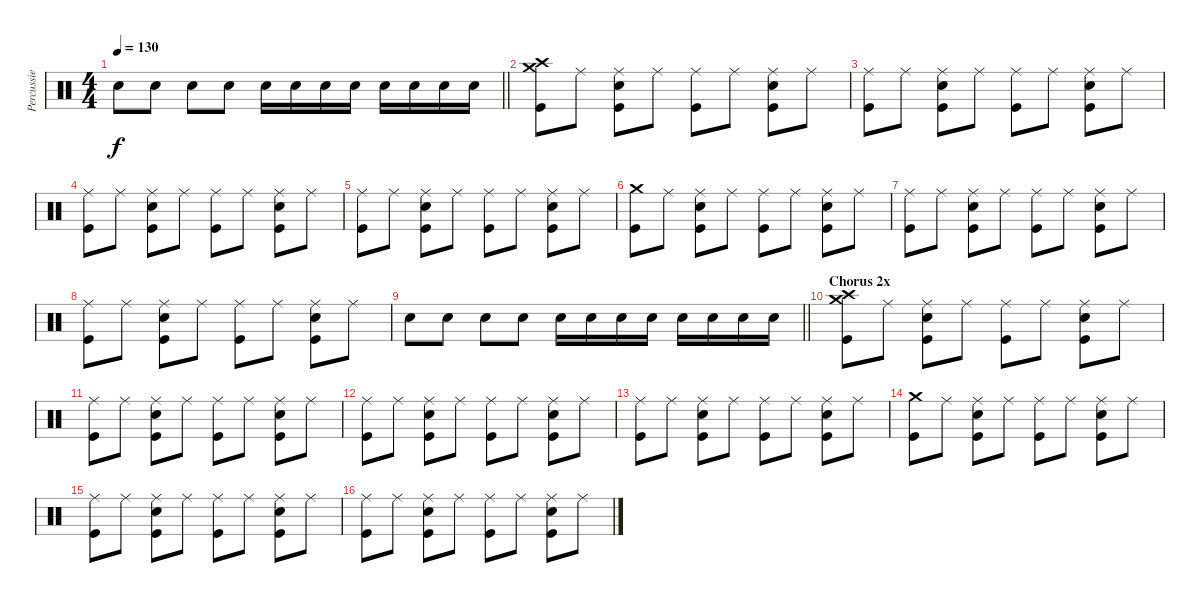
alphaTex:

\track ("Percussie" "Percussie") {instrument percussion}
\staff {score}
\articulation defaults
\ts (4 4)
\tempo 130
\clef neutral
\barLineRight lightlight
\ks c "Snare (hit) 2".8{dy f} "Snare (hit) 2".8 "Snare (hit) 2".8 "Snare (hit) 2".8 "Snare (hit) 2".16 "Snare (hit) 2".16 "Snare (hit) 2".16 "Snare (hit) 2".16 "Snare (hit) 2".16 "Snare (hit) 2".16 "Snare (hit) 2".16 "Snare (hit) 2".16
|
("Crash high (hit)" "Crash medium (hit)" "Kick (hit)").8 "Ride (middle)".8 ("Ride (middle)" "Snare (hit) 2" "Kick (hit)").8 "Ride (middle)".8 ("Ride (middle)" "Kick (hit)").8 "Ride (middle)".8 ("Ride (middle)" "Snare (hit) 2" "Kick (hit)").8 "Ride (middle)".8 |
("Ride (middle)" "Kick (hit)").8 "Ride (middle)".8 ("Ride (middle)" "Snare (hit) 2" "Kick (hit)").8 "Ride (middle)".8 ("Ride (middle)" "Kick (hit)").8 "Ride (middle)".8 ("Ride (middle)" "Snare (hit) 2" "Kick (hit)").8 "Ride (middle)".8 |
("Ride (middle)" "Kick (hit)").8 "Ride (middle)".8 ("Ride (middle)" "Snare (hit) 2" "Kick (hit)").8 "Ride (middle)".8 ("Ride (middle)" "Kick (hit)").8 "Ride (middle)".8 ("Ride (middle)" "Snare (hit) 2" "Kick (hit)").8 "Ride (middle)".8 |
("Ride (middle)" "Kick (hit)").8 "Ride (middle)".8 ("Ride (middle)" "Snare (hit) 2" "Kick (hit)").8 "Ride (middle)".8 ("Ride (middle)" "Kick (hit)").8 "Ride (middle)".8 ("Ride (middle)" "Snare (hit) 2" "Kick (hit)").8 "Ride (middle)".8 |
("Crash medium (hit)" "Kick (hit)").8 "Ride (middle)".8 ("Ride (middle)" "Snare (hit) 2" "Kick (hit)").8 "Ride (middle)".8 ("Ride (middle)" "Kick (hit)").8 "Ride (middle)".8 ("Ride (middle)" "Snare (hit) 2" "Kick (hit)").8 "Ride (middle)".8 |
("Ride (middle)" "Kick (hit)").8 "Ride (middle)".8 ("Ride (middle)" "Snare (hit) 2" "Kick (hit)").8 "Ride (middle)".8 ("Ride (middle)" "Kick (hit)").8 "Ride (middle)".8 ("Ride (middle)" "Snare (hit) 2" "Kick (hit)").8 "Ride (middle)".8 |
("Ride (middle)" "Kick (hit)").8 "Ride (middle)".8 ("Ride (middle)" "Snare (hit) 2" "Kick (hit)").8 "Ride (middle)".8 ("Ride (middle)" "Kick (hit)").8 "Ride (middle)".8 ("Ride (middle)" "Snare (hit) 2" "Kick (hit)").8 "Ride (middle)".8 |
\barLineRight lightlight "Snare (hit) 2".8 "Snare (hit) 2".8 "Snare (hit) 2".8 "Snare (hit) 2".8 "Snare (hit) 2".16 "Snare (hit) 2".16 "Snare (hit) 2".16 "Snare (hit) 2".16 "Snare (hit) 2".16 "Snare (hit) 2".16 "Snare (hit) 2".16 "Snare (hit) 2".16
|
\section ("" "Chorus 2x")
("Crash high (hit)" "Crash medium (hit)" "Kick (hit)").8 "Ride (middle)".8 ("Ride (middle)" "Snare (hit) 2" "Kick (hit)").8 "Ride (middle)".8 ("Ride (middle)" "Kick (hit)").8 "Ride (middle)".8 ("Ride (middle)" "Snare (hit) 2" "Kick (hit)").8 "Ride (middle)".8 |
("Ride (middle)" "Kick (hit)").8 "Ride (middle)".8 ("Ride (middle)" "Snare (hit) 2" "Kick (hit)").8 "Ride (middle)".8 ("Ride (middle)" "Kick (hit)").8 "Ride (middle)".8 ("Ride (middle)" "Snare (hit) 2" "Kick (hit)").8 "Ride (middle)".8 |
("Ride (middle)" "Kick (hit)").8 "Ride (middle)".8 ("Ride (middle)" "Snare (hit) 2" "Kick (hit)").8 "Ride (middle)".8 ("Ride (middle)" "Kick (hit)").8 "Ride (middle)".8 ("Ride (middle)" "Snare (hit) 2" "Kick (hit)").8 "Ride (middle)".8 |
("Ride (middle)" "Kick (hit)").8 "Ride (middle)".8 ("Ride (middle)" "Snare (hit) 2" "Kick (hit)").8 "Ride (middle)".8 ("Ride (middle)" "Kick (hit)").8 "Ride (middle)".8 ("Ride (middle)" "Snare (hit) 2" "Kick (hit)").8 "Ride (middle)".8 |
("Crash medium (hit)" "Kick (hit)").8 "Ride (middle)".8 ("Ride (middle)" "Snare (hit) 2" "Kick (hit)").8 "Ride (middle)".8 ("Ride (middle)" "Kick (hit)").8 "Ride (middle)".8 ("Ride (middle)" "Snare (hit) 2" "Kick (hit)").8 "Ride (middle)".8 |
("Ride (middle)" "Kick (hit)").8 "Ride (middle)".8 ("Ride (middle)" "Snare (hit) 2" "Kick (hit)").8 "Ride (middle)".8 ("Ride (middle)" "Kick (hit)").8 "Ride (middle)".8 ("Ride (middle)" "Snare (hit) 2" "Kick (hit)").8 "Ride (middle)".8 |
("Ride (middle)" "Kick (hit)").8 "Ride (middle)".8 ("Ride (middle)" "Snare (hit) 2" "Kick (hit)").8 "Ride (middle)".8 ("Ride (middle)" "Kick (hit)").8 "Ride (middle)".8 ("Ride (middle)" "Snare (hit) 2" "Kick (hit)").8 "Ride (middle)".8
